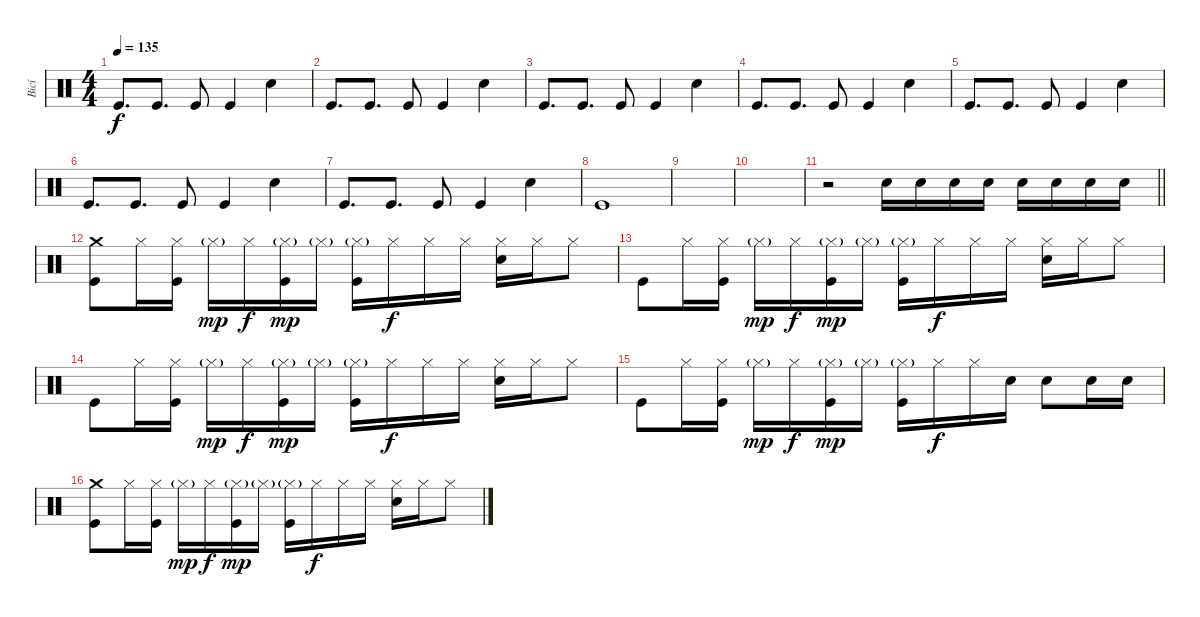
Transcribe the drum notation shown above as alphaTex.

\track ("Bicí" "Bicí") {instrument percussion}
\staff {score}
\articulation defaults
\ts (4 4)
\tempo 135
\clef neutral
\ks c "Kick (hit)".8{d dy f} "Kick (hit)".8{d} "Kick (hit)".8 "Kick (hit)".4 "Electric Snare (hit)".4
|
"Kick (hit)".8{d} "Kick (hit)".8{d} "Kick (hit)".8 "Kick (hit)".4 "Electric Snare (hit)".4 |
"Kick (hit)".8{d} "Kick (hit)".8{d} "Kick (hit)".8 "Kick (hit)".4 "Electric Snare (hit)".4 |
"Kick (hit)".8{d} "Kick (hit)".8{d} "Kick (hit)".8 "Kick (hit)".4 "Electric Snare (hit)".4 |
"Kick (hit)".8{d} "Kick (hit)".8{d} "Kick (hit)".8 "Kick (hit)".4 "Electric Snare (hit)".4 |
"Kick (hit)".8{d} "Kick (hit)".8{d} "Kick (hit)".8 "Kick (hit)".4 "Electric Snare (hit)".4 |
"Kick (hit)".8{d} "Kick (hit)".8{d} "Kick (hit)".8 "Kick (hit)".4 "Electric Snare (hit)".4 |
"Kick (hit)".1 |
|
|
\barLineRight lightlight
r.2 "Electric Snare (hit)".16 "Electric Snare (hit)".16 "Electric Snare (hit)".16 "Electric Snare (hit)".16 "Electric Snare (hit)".16 "Electric Snare (hit)".16 "Electric Snare (hit)".16 "Electric Snare (hit)".16 |
\section ("" "")
("Crash medium (hit)" "Kick (hit)").8 "Hi-Hat (closed)".16 ("Hi-Hat (closed)" "Kick (hit)").16 "Hi-Hat (closed)"{g}.16{dy mp} "Hi-Hat (closed)".16{dy f} ("Hi-Hat (closed)"{g} "Kick (hit)").16{dy mp} "Hi-Hat (closed)"{g}.16 ("Hi-Hat (closed)"{g} "Kick (hit)").16 "Hi-Hat (closed)".16{dy f} "Hi-Hat (closed)".16 "Hi-Hat (closed)".16 ("Hi-Hat (closed)" "Electric Snare (hit)").16 "Hi-Hat (closed)".16 "Hi-Hat (closed)".8 |
"Kick (hit)".8 "Hi-Hat (closed)".16 ("Hi-Hat (closed)" "Kick (hit)").16 "Hi-Hat (closed)"{g}.16{dy mp} "Hi-Hat (closed)".16{dy f} ("Hi-Hat (closed)"{g} "Kick (hit)").16{dy mp} "Hi-Hat (closed)"{g}.16 ("Hi-Hat (closed)"{g} "Kick (hit)").16 "Hi-Hat (closed)".16{dy f} "Hi-Hat (closed)".16 "Hi-Hat (closed)".16 ("Hi-Hat (closed)" "Electric Snare (hit)").16 "Hi-Hat (closed)".16 "Hi-Hat (closed)".8 |
"Kick (hit)".8 "Hi-Hat (closed)".16 ("Hi-Hat (closed)" "Kick (hit)").16 "Hi-Hat (closed)"{g}.16{dy mp} "Hi-Hat (closed)".16{dy f} ("Hi-Hat (closed)"{g} "Kick (hit)").16{dy mp} "Hi-Hat (closed)"{g}.16 ("Hi-Hat (closed)"{g} "Kick (hit)").16 "Hi-Hat (closed)".16{dy f} "Hi-Hat (closed)".16 "Hi-Hat (closed)".16 ("Hi-Hat (closed)" "Electric Snare (hit)").16 "Hi-Hat (closed)".16 "Hi-Hat (closed)".8 |
"Kick (hit)".8 "Hi-Hat (closed)".16 ("Hi-Hat (closed)" "Kick (hit)").16 "Hi-Hat (closed)"{g}.16{dy mp} "Hi-Hat (closed)".16{dy f} ("Hi-Hat (closed)"{g} "Kick (hit)").16{dy mp} "Hi-Hat (closed)"{g}.16 ("Hi-Hat (closed)"{g} "Kick (hit)").16 "Hi-Hat (closed)".16{dy f} "Hi-Hat (closed)".16 "Electric Snare (hit)".16 "Electric Snare (hit)".8 "Electric Snare (hit)".16 "Electric Snare (hit)".16 |
("Crash medium (hit)" "Kick (hit)").8 "Hi-Hat (closed)".16 ("Hi-Hat (closed)" "Kick (hit)").16 "Hi-Hat (closed)"{g}.16{dy mp} "Hi-Hat (closed)".16{dy f} ("Hi-Hat (closed)"{g} "Kick (hit)").16{dy mp} "Hi-Hat (closed)"{g}.16 ("Hi-Hat (closed)"{g} "Kick (hit)").16 "Hi-Hat (closed)".16{dy f} "Hi-Hat (closed)".16 "Hi-Hat (closed)".16 ("Hi-Hat (closed)" "Electric Snare (hit)").16 "Hi-Hat (closed)".16 "Hi-Hat (closed)".8
